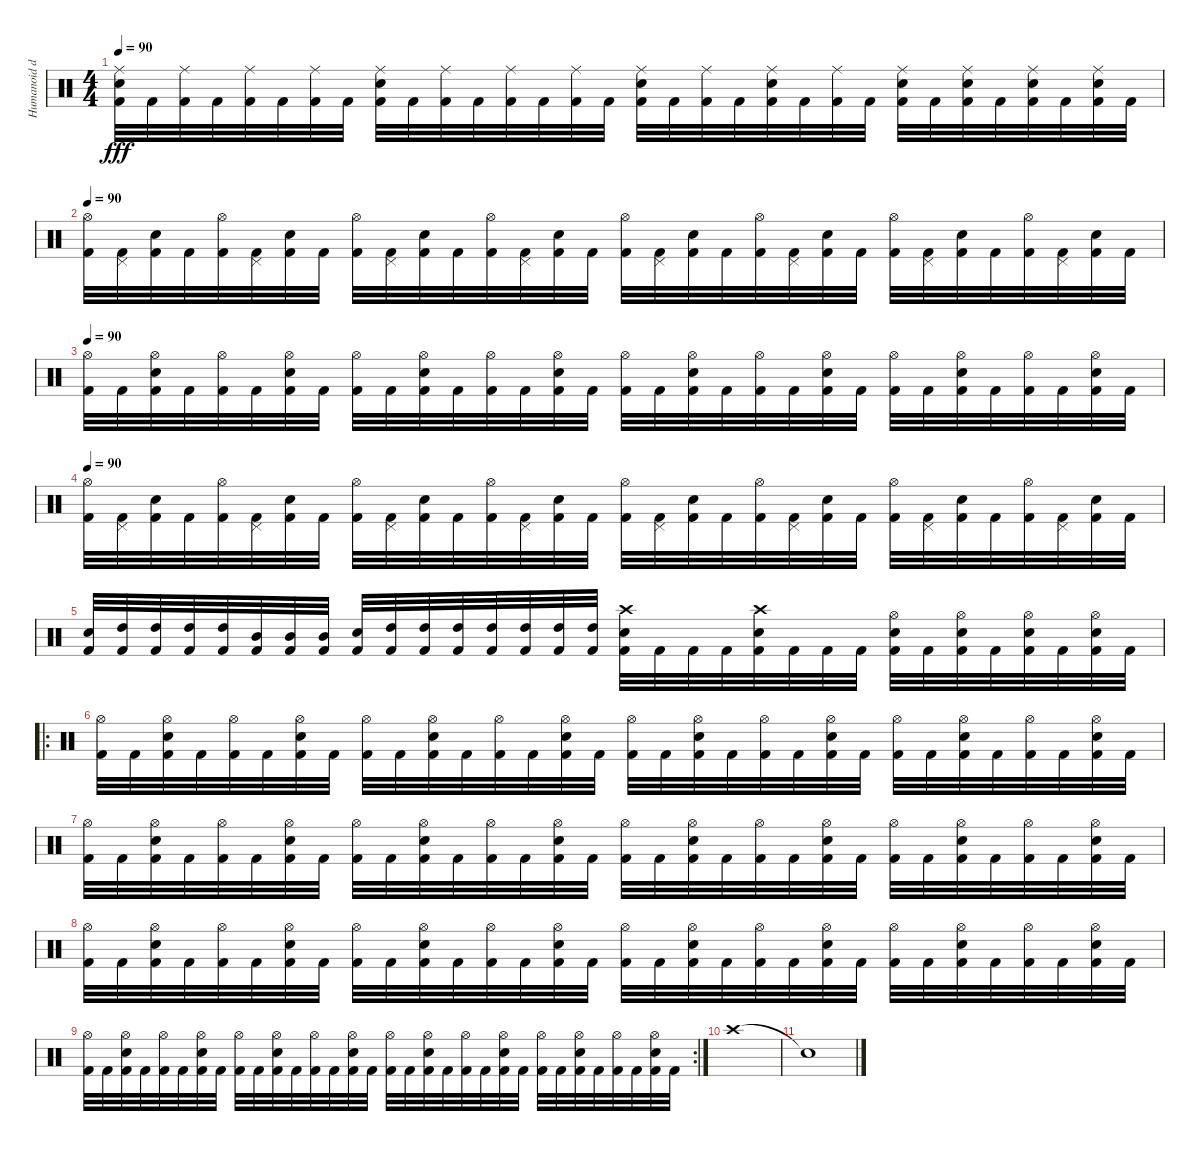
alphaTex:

\track ("Humanoid drum machine" "Humanoid d") {instrument percussion}
\staff {score}
\articulation defaults
\ts (4 4)
\tempo 90
\clef neutral
\ks c
("Ride (middle)" "Electric Snare (hit)" "Kick (hit) 2").32{dy fff} "Kick (hit) 2".32 ("Ride (middle)" "Kick (hit) 2").32 "Kick (hit) 2".32 ("Ride (middle)" "Kick (hit) 2").32 "Kick (hit) 2".32 ("Ride (middle)" "Kick (hit) 2").32 "Kick (hit) 2".32 ("Ride (middle)" "Electric Snare (hit)" "Kick (hit) 2").32 "Kick (hit) 2".32 ("Ride (middle)" "Kick (hit) 2").32 "Kick (hit) 2".32 ("Ride (middle)" "Kick (hit) 2").32 "Kick (hit) 2".32 ("Ride (middle)" "Kick (hit) 2").32 "Kick (hit) 2".32 ("Ride (middle)" "Electric Snare (hit)" "Kick (hit) 2").32 "Kick (hit) 2".32 ("Ride (middle)" "Kick (hit) 2").32 "Kick (hit) 2".32 ("Ride (middle)" "Electric Snare (hit)" "Kick (hit) 2").32 "Kick (hit) 2".32 ("Ride (middle)" "Kick (hit) 2").32 "Kick (hit) 2".32 ("Ride (middle)" "Electric Snare (hit)" "Kick (hit) 2").32 "Kick (hit) 2".32 ("Ride (middle)" "Electric Snare (hit)" "Kick (hit) 2").32 "Kick (hit) 2".32 ("Ride (middle)" "Electric Snare (hit)" "Kick (hit) 2").32 "Kick (hit) 2".32 ("Ride (middle)" "Electric Snare (hit)" "Kick (hit) 2").32 "Kick (hit) 2".32 |
\tempo 90
("Hi-Hat (open)" "Kick (hit) 2").32 ("Pedal Hi-Hat (hit)" "Kick (hit) 2").32 ("Electric Snare (hit)" "Kick (hit) 2").32 "Kick (hit) 2".32 ("Hi-Hat (open)" "Kick (hit) 2").32 ("Pedal Hi-Hat (hit)" "Kick (hit) 2").32 ("Electric Snare (hit)" "Kick (hit) 2").32 "Kick (hit) 2".32 ("Hi-Hat (open)" "Kick (hit) 2").32 ("Pedal Hi-Hat (hit)" "Kick (hit) 2").32 ("Electric Snare (hit)" "Kick (hit) 2").32 "Kick (hit) 2".32 ("Hi-Hat (open)" "Kick (hit) 2").32 ("Pedal Hi-Hat (hit)" "Kick (hit) 2").32 ("Electric Snare (hit)" "Kick (hit) 2").32 "Kick (hit) 2".32 ("Hi-Hat (open)" "Kick (hit) 2").32 ("Pedal Hi-Hat (hit)" "Kick (hit) 2").32 ("Electric Snare (hit)" "Kick (hit) 2").32 "Kick (hit) 2".32 ("Hi-Hat (open)" "Kick (hit) 2").32 ("Pedal Hi-Hat (hit)" "Kick (hit) 2").32 ("Electric Snare (hit)" "Kick (hit) 2").32 "Kick (hit) 2".32 ("Hi-Hat (open)" "Kick (hit) 2").32 ("Pedal Hi-Hat (hit)" "Kick (hit) 2").32 ("Electric Snare (hit)" "Kick (hit) 2").32 "Kick (hit) 2".32 ("Hi-Hat (open)" "Kick (hit) 2").32 ("Pedal Hi-Hat (hit)" "Kick (hit) 2").32 ("Electric Snare (hit)" "Kick (hit) 2").32 "Kick (hit) 2".32 |
\tempo 90
("Hi-Hat (open)" "Kick (hit) 2").32 "Kick (hit) 2".32 ("Hi-Hat (open)" "Electric Snare (hit)" "Kick (hit) 2").32 "Kick (hit) 2".32 ("Hi-Hat (open)" "Kick (hit) 2").32 "Kick (hit) 2".32 ("Hi-Hat (open)" "Electric Snare (hit)" "Kick (hit) 2").32 "Kick (hit) 2".32 ("Hi-Hat (open)" "Kick (hit) 2").32 "Kick (hit) 2".32 ("Hi-Hat (open)" "Electric Snare (hit)" "Kick (hit) 2").32 "Kick (hit) 2".32 ("Hi-Hat (open)" "Kick (hit) 2").32 "Kick (hit) 2".32 ("Hi-Hat (open)" "Electric Snare (hit)" "Kick (hit) 2").32 "Kick (hit) 2".32 ("Hi-Hat (open)" "Kick (hit) 2").32 "Kick (hit) 2".32 ("Hi-Hat (open)" "Electric Snare (hit)" "Kick (hit) 2").32 "Kick (hit) 2".32 ("Hi-Hat (open)" "Kick (hit) 2").32 "Kick (hit) 2".32 ("Hi-Hat (open)" "Electric Snare (hit)" "Kick (hit) 2").32 "Kick (hit) 2".32 ("Hi-Hat (open)" "Kick (hit) 2").32 "Kick (hit) 2".32 ("Hi-Hat (open)" "Electric Snare (hit)" "Kick (hit) 2").32 "Kick (hit) 2".32 ("Hi-Hat (open)" "Kick (hit) 2").32 "Kick (hit) 2".32 ("Hi-Hat (open)" "Electric Snare (hit)" "Kick (hit) 2").32 "Kick (hit) 2".32 |
\tempo 90
("Hi-Hat (open)" "Kick (hit) 2").32 ("Pedal Hi-Hat (hit)" "Kick (hit) 2").32 ("Electric Snare (hit)" "Kick (hit) 2").32 "Kick (hit) 2".32 ("Hi-Hat (open)" "Kick (hit) 2").32 ("Pedal Hi-Hat (hit)" "Kick (hit) 2").32 ("Electric Snare (hit)" "Kick (hit) 2").32 "Kick (hit) 2".32 ("Hi-Hat (open)" "Kick (hit) 2").32 ("Pedal Hi-Hat (hit)" "Kick (hit) 2").32 ("Electric Snare (hit)" "Kick (hit) 2").32 "Kick (hit) 2".32 ("Hi-Hat (open)" "Kick (hit) 2").32 ("Pedal Hi-Hat (hit)" "Kick (hit) 2").32 ("Electric Snare (hit)" "Kick (hit) 2").32 "Kick (hit) 2".32 ("Hi-Hat (open)" "Kick (hit) 2").32 ("Pedal Hi-Hat (hit)" "Kick (hit) 2").32 ("Electric Snare (hit)" "Kick (hit) 2").32 "Kick (hit) 2".32 ("Hi-Hat (open)" "Kick (hit) 2").32 ("Pedal Hi-Hat (hit)" "Kick (hit) 2").32 ("Electric Snare (hit)" "Kick (hit) 2").32 "Kick (hit) 2".32 ("Hi-Hat (open)" "Kick (hit) 2").32 ("Pedal Hi-Hat (hit)" "Kick (hit) 2").32 ("Electric Snare (hit)" "Kick (hit) 2").32 "Kick (hit) 2".32 ("Hi-Hat (open)" "Kick (hit) 2").32 ("Pedal Hi-Hat (hit)" "Kick (hit) 2").32 ("Electric Snare (hit)" "Kick (hit) 2").32 "Kick (hit) 2".32 |
("Electric Snare (hit)" "Kick (hit) 2").32 ("High Tom (hit)" "Kick (hit) 2").32 ("High Tom (hit)" "Kick (hit) 2").32 ("High Tom (hit)" "Kick (hit) 2").32 ("High Tom (hit)" "Kick (hit) 2").32 ("Mid Tom (hit)" "Kick (hit) 2").32 ("Mid Tom (hit)" "Kick (hit) 2").32 ("Mid Tom (hit)" "Kick (hit) 2").32 ("Electric Snare (hit)" "Kick (hit) 2").32 ("High Tom (hit)" "Kick (hit) 2").32 ("High Tom (hit)" "Kick (hit) 2").32 ("High Tom (hit)" "Kick (hit) 2").32 ("High Tom (hit)" "Kick (hit) 2").32 ("High Tom (hit)" "Kick (hit) 2").32 ("High Tom (hit)" "Kick (hit) 2").32 ("High Tom (hit)" "Kick (hit) 2").32 ("Crash high (hit)" "Electric Snare (hit)" "Kick (hit) 2").32 "Kick (hit) 2".32 "Kick (hit) 2".32 "Kick (hit) 2".32 ("Crash high (hit)" "Electric Snare (hit)" "Kick (hit) 2").32 "Kick (hit) 2".32 "Kick (hit) 2".32 "Kick (hit) 2".32 ("Hi-Hat (open)" "Electric Snare (hit)" "Kick (hit) 2").32 "Kick (hit) 2".32 ("Hi-Hat (open)" "Electric Snare (hit)" "Kick (hit) 2").32 "Kick (hit) 2".32 ("Hi-Hat (open)" "Electric Snare (hit)" "Kick (hit) 2").32 "Kick (hit) 2".32 ("Hi-Hat (open)" "Electric Snare (hit)" "Kick (hit) 2").32 "Kick (hit) 2".32 |
\ro
("Hi-Hat (open)" "Kick (hit) 2").32 "Kick (hit) 2".32 ("Hi-Hat (open)" "Electric Snare (hit)" "Kick (hit) 2").32 "Kick (hit) 2".32 ("Hi-Hat (open)" "Kick (hit) 2").32 "Kick (hit) 2".32 ("Hi-Hat (open)" "Electric Snare (hit)" "Kick (hit) 2").32 "Kick (hit) 2".32 ("Hi-Hat (open)" "Kick (hit) 2").32 "Kick (hit) 2".32 ("Hi-Hat (open)" "Electric Snare (hit)" "Kick (hit) 2").32 "Kick (hit) 2".32 ("Hi-Hat (open)" "Kick (hit) 2").32 "Kick (hit) 2".32 ("Hi-Hat (open)" "Electric Snare (hit)" "Kick (hit) 2").32 "Kick (hit) 2".32 ("Hi-Hat (open)" "Kick (hit) 2").32 "Kick (hit) 2".32 ("Hi-Hat (open)" "Electric Snare (hit)" "Kick (hit) 2").32 "Kick (hit) 2".32 ("Hi-Hat (open)" "Kick (hit) 2").32 "Kick (hit) 2".32 ("Hi-Hat (open)" "Electric Snare (hit)" "Kick (hit) 2").32 "Kick (hit) 2".32 ("Hi-Hat (open)" "Kick (hit) 2").32 "Kick (hit) 2".32 ("Hi-Hat (open)" "Electric Snare (hit)" "Kick (hit) 2").32 "Kick (hit) 2".32 ("Hi-Hat (open)" "Kick (hit) 2").32 "Kick (hit) 2".32 ("Hi-Hat (open)" "Electric Snare (hit)" "Kick (hit) 2").32 "Kick (hit) 2".32 |
("Hi-Hat (open)" "Kick (hit) 2").32 "Kick (hit) 2".32 ("Hi-Hat (open)" "Electric Snare (hit)" "Kick (hit) 2").32 "Kick (hit) 2".32 ("Hi-Hat (open)" "Kick (hit) 2").32 "Kick (hit) 2".32 ("Hi-Hat (open)" "Electric Snare (hit)" "Kick (hit) 2").32 "Kick (hit) 2".32 ("Hi-Hat (open)" "Kick (hit) 2").32 "Kick (hit) 2".32 ("Hi-Hat (open)" "Electric Snare (hit)" "Kick (hit) 2").32 "Kick (hit) 2".32 ("Hi-Hat (open)" "Kick (hit) 2").32 "Kick (hit) 2".32 ("Hi-Hat (open)" "Electric Snare (hit)" "Kick (hit) 2").32 "Kick (hit) 2".32 ("Hi-Hat (open)" "Kick (hit) 2").32 "Kick (hit) 2".32 ("Hi-Hat (open)" "Electric Snare (hit)" "Kick (hit) 2").32 "Kick (hit) 2".32 ("Hi-Hat (open)" "Kick (hit) 2").32 "Kick (hit) 2".32 ("Hi-Hat (open)" "Electric Snare (hit)" "Kick (hit) 2").32 "Kick (hit) 2".32 ("Hi-Hat (open)" "Kick (hit) 2").32 "Kick (hit) 2".32 ("Hi-Hat (open)" "Electric Snare (hit)" "Kick (hit) 2").32 "Kick (hit) 2".32 ("Hi-Hat (open)" "Kick (hit) 2").32 "Kick (hit) 2".32 ("Hi-Hat (open)" "Electric Snare (hit)" "Kick (hit) 2").32 "Kick (hit) 2".32 |
("Hi-Hat (open)" "Kick (hit) 2").32 "Kick (hit) 2".32 ("Hi-Hat (open)" "Electric Snare (hit)" "Kick (hit) 2").32 "Kick (hit) 2".32 ("Hi-Hat (open)" "Kick (hit) 2").32 "Kick (hit) 2".32 ("Hi-Hat (open)" "Electric Snare (hit)" "Kick (hit) 2").32 "Kick (hit) 2".32 ("Hi-Hat (open)" "Kick (hit) 2").32 "Kick (hit) 2".32 ("Hi-Hat (open)" "Electric Snare (hit)" "Kick (hit) 2").32 "Kick (hit) 2".32 ("Hi-Hat (open)" "Kick (hit) 2").32 "Kick (hit) 2".32 ("Hi-Hat (open)" "Electric Snare (hit)" "Kick (hit) 2").32 "Kick (hit) 2".32 ("Hi-Hat (open)" "Kick (hit) 2").32 "Kick (hit) 2".32 ("Hi-Hat (open)" "Electric Snare (hit)" "Kick (hit) 2").32 "Kick (hit) 2".32 ("Hi-Hat (open)" "Kick (hit) 2").32 "Kick (hit) 2".32 ("Hi-Hat (open)" "Electric Snare (hit)" "Kick (hit) 2").32 "Kick (hit) 2".32 ("Hi-Hat (open)" "Kick (hit) 2").32 "Kick (hit) 2".32 ("Hi-Hat (open)" "Electric Snare (hit)" "Kick (hit) 2").32 "Kick (hit) 2".32 ("Hi-Hat (open)" "Kick (hit) 2").32 "Kick (hit) 2".32 ("Hi-Hat (open)" "Electric Snare (hit)" "Kick (hit) 2").32 "Kick (hit) 2".32 |
\rc 2
("Hi-Hat (open)" "Kick (hit) 2").32 "Kick (hit) 2".32 ("Hi-Hat (open)" "Electric Snare (hit)" "Kick (hit) 2").32 "Kick (hit) 2".32 ("Hi-Hat (open)" "Kick (hit) 2").32 "Kick (hit) 2".32 ("Hi-Hat (open)" "Electric Snare (hit)" "Kick (hit) 2").32 "Kick (hit) 2".32 ("Hi-Hat (open)" "Kick (hit) 2").32 "Kick (hit) 2".32 ("Hi-Hat (open)" "Electric Snare (hit)" "Kick (hit) 2").32 "Kick (hit) 2".32 ("Hi-Hat (open)" "Kick (hit) 2").32 "Kick (hit) 2".32 ("Hi-Hat (open)" "Electric Snare (hit)" "Kick (hit) 2").32 "Kick (hit) 2".32 ("Hi-Hat (open)" "Kick (hit) 2").32 "Kick (hit) 2".32 ("Hi-Hat (open)" "Electric Snare (hit)" "Kick (hit) 2").32 "Kick (hit) 2".32 ("Hi-Hat (open)" "Kick (hit) 2").32 "Kick (hit) 2".32 ("Hi-Hat (open)" "Electric Snare (hit)" "Kick (hit) 2").32 "Kick (hit) 2".32 ("Hi-Hat (open)" "Kick (hit) 2").32 "Kick (hit) 2".32 ("Hi-Hat (open)" "Electric Snare (hit)" "Kick (hit) 2").32 "Kick (hit) 2".32 ("Hi-Hat (open)" "Kick (hit) 2").32 "Kick (hit) 2".32 ("Hi-Hat (open)" "Electric Snare (hit)" "Kick (hit) 2").32 "Kick (hit) 2".32 |
"Crash high (hit)".1 |
"Snare (hit)"{t}.1
